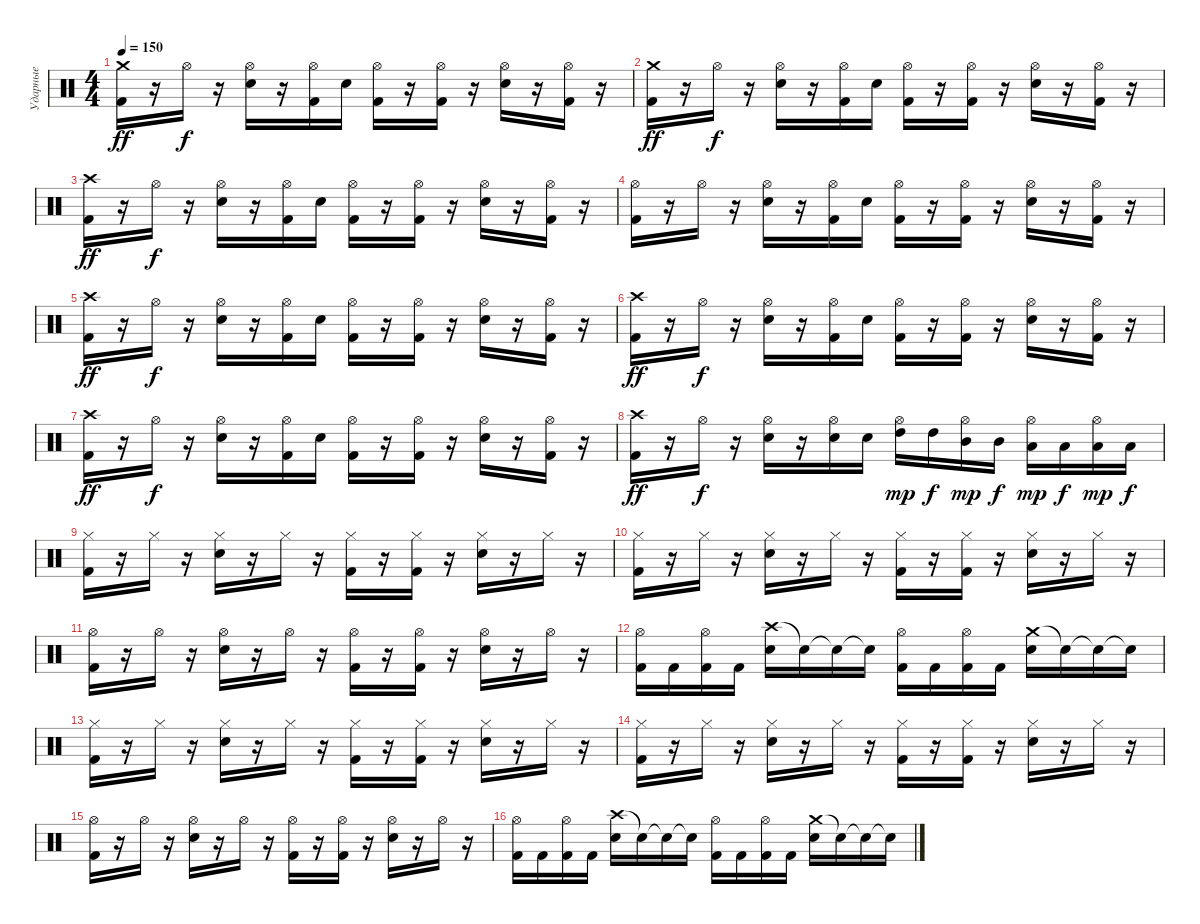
\track ("Ударные" "Ударные") {instrument percussion}
\staff {score}
\articulation defaults
\ts (4 4)
\tempo 150
\clef neutral
\ks c
("Crash medium (hit)" "Kick (hit) 2").16{dy ff} r.16 "Hi-Hat (open)".16{dy f} r.16 ("Hi-Hat (open)" "Snare (hit) 2").16 r.16 ("Hi-Hat (open)" "Kick (hit) 2").16 "Snare (hit) 2".16 ("Hi-Hat (open)" "Kick (hit) 2").16 r.16 ("Hi-Hat (open)" "Kick (hit) 2").16 r.16 ("Hi-Hat (open)" "Snare (hit) 2").16 r.16 ("Hi-Hat (open)" "Kick (hit) 2").16 r.16 |
("Crash medium (hit)" "Kick (hit) 2").16{dy ff} r.16 "Hi-Hat (open)".16{dy f} r.16 ("Hi-Hat (open)" "Snare (hit) 2").16 r.16 ("Hi-Hat (open)" "Kick (hit) 2").16 "Snare (hit) 2".16 ("Hi-Hat (open)" "Kick (hit) 2").16 r.16 ("Hi-Hat (open)" "Kick (hit) 2").16 r.16 ("Hi-Hat (open)" "Snare (hit) 2").16 r.16 ("Hi-Hat (open)" "Kick (hit) 2").16 r.16 |
("Crash high (hit)" "Kick (hit) 2").16{dy ff} r.16 "Hi-Hat (open)".16{dy f} r.16 ("Hi-Hat (open)" "Snare (hit) 2").16 r.16 ("Hi-Hat (open)" "Kick (hit) 2").16 "Snare (hit) 2".16 ("Hi-Hat (open)" "Kick (hit) 2").16 r.16 ("Hi-Hat (open)" "Kick (hit) 2").16 r.16 ("Hi-Hat (open)" "Snare (hit) 2").16 r.16 ("Hi-Hat (open)" "Kick (hit) 2").16 r.16 |
("Hi-Hat (open)" "Kick (hit) 2").16 r.16 "Hi-Hat (open)".16 r.16 ("Hi-Hat (open)" "Snare (hit) 2").16 r.16 ("Hi-Hat (open)" "Kick (hit) 2").16 "Snare (hit) 2".16 ("Hi-Hat (open)" "Kick (hit) 2").16 r.16 ("Hi-Hat (open)" "Kick (hit) 2").16 r.16 ("Hi-Hat (open)" "Snare (hit) 2").16 r.16 ("Hi-Hat (open)" "Kick (hit) 2").16 r.16 |
("Crash high (hit)" "Kick (hit) 2").16{dy ff} r.16 "Hi-Hat (open)".16{dy f} r.16 ("Hi-Hat (open)" "Snare (hit) 2").16 r.16 ("Hi-Hat (open)" "Kick (hit) 2").16 "Snare (hit) 2".16 ("Hi-Hat (open)" "Kick (hit) 2").16 r.16 ("Hi-Hat (open)" "Kick (hit) 2").16 r.16 ("Hi-Hat (open)" "Snare (hit) 2").16 r.16 ("Hi-Hat (open)" "Kick (hit) 2").16 r.16 |
("Crash high (hit)" "Kick (hit) 2").16{dy ff} r.16 "Hi-Hat (open)".16{dy f} r.16 ("Hi-Hat (open)" "Snare (hit) 2").16 r.16 ("Hi-Hat (open)" "Kick (hit) 2").16 "Snare (hit) 2".16 ("Hi-Hat (open)" "Kick (hit) 2").16 r.16 ("Hi-Hat (open)" "Kick (hit) 2").16 r.16 ("Hi-Hat (open)" "Snare (hit) 2").16 r.16 ("Hi-Hat (open)" "Kick (hit) 2").16 r.16 |
("Crash high (hit)" "Kick (hit) 2").16{dy ff} r.16 "Hi-Hat (open)".16{dy f} r.16 ("Hi-Hat (open)" "Snare (hit) 2").16 r.16 ("Hi-Hat (open)" "Kick (hit) 2").16 "Snare (hit) 2".16 ("Hi-Hat (open)" "Kick (hit) 2").16 r.16 ("Hi-Hat (open)" "Kick (hit) 2").16 r.16 ("Hi-Hat (open)" "Snare (hit) 2").16 r.16 ("Hi-Hat (open)" "Kick (hit) 2").16 r.16 |
("Crash high (hit)" "Kick (hit) 2").16{dy ff} r.16 "Hi-Hat (open)".16{dy f} r.16 ("Hi-Hat (open)" "Snare (hit) 2").16 r.16 ("Hi-Hat (open)" "Snare (hit) 2").16 "Snare (hit) 2".16 ("Hi-Hat (open)" "High Tom (hit)").16{dy mp} "High Tom (hit)".16{dy f} ("Hi-Hat (open)" "Mid Tom (hit)").16{dy mp} "Mid Tom (hit)".16{dy f} ("Hi-Hat (open)" "Low Tom (hit)").16{dy mp} "Low Tom (hit)".16{dy f} ("Hi-Hat (open)" "Low Floor Tom (hit)").16{dy mp} "Low Floor Tom (hit)".16{dy f} |
("Hi-Hat (closed)" "Kick (hit) 2").16 r.16 "Hi-Hat (closed)".16 r.16 ("Hi-Hat (closed)" "Snare (hit) 2").16 r.16 "Hi-Hat (closed)".16 r.16 ("Hi-Hat (closed)" "Kick (hit) 2").16 r.16 ("Hi-Hat (closed)" "Kick (hit) 2").16 r.16 ("Hi-Hat (closed)" "Snare (hit) 2").16 r.16 "Hi-Hat (closed)".16 r.16 |
("Hi-Hat (closed)" "Kick (hit) 2").16 r.16 "Hi-Hat (closed)".16 r.16 ("Hi-Hat (closed)" "Snare (hit) 2").16 r.16 "Hi-Hat (closed)".16 r.16 ("Hi-Hat (closed)" "Kick (hit) 2").16 r.16 ("Hi-Hat (closed)" "Kick (hit) 2").16 r.16 ("Hi-Hat (closed)" "Snare (hit) 2").16 r.16 "Hi-Hat (closed)".16 r.16 |
("Hi-Hat (open)" "Kick (hit) 2").16 r.16 "Hi-Hat (open)".16 r.16 ("Hi-Hat (open)" "Snare (hit) 2").16 r.16 "Hi-Hat (open)".16 r.16 ("Hi-Hat (open)" "Kick (hit) 2").16 r.16 ("Hi-Hat (open)" "Kick (hit) 2").16 r.16 ("Hi-Hat (open)" "Snare (hit) 2").16 r.16 "Hi-Hat (open)".16 r.16 |
("Hi-Hat (open)" "Kick (hit) 2").16 "Kick (hit) 2".16 ("Hi-Hat (open)" "Kick (hit) 2").16 "Kick (hit) 2".16 ("Crash high (hit)" "Snare (hit) 2").16 "Snare (hit)"{t}.16 "Snare (hit)"{t}.16 "Snare (hit)"{t}.16 ("Hi-Hat (open)" "Kick (hit) 2").16 "Kick (hit) 2".16 ("Hi-Hat (open)" "Kick (hit) 2").16 "Kick (hit) 2".16 ("Crash medium (hit)" "Snare (hit) 2").16 "Snare (hit)"{t}.16 "Snare (hit)"{t}.16 "Snare (hit)"{t}.16 |
("Hi-Hat (closed)" "Kick (hit) 2").16 r.16 "Hi-Hat (closed)".16 r.16 ("Hi-Hat (closed)" "Snare (hit) 2").16 r.16 "Hi-Hat (closed)".16 r.16 ("Hi-Hat (closed)" "Kick (hit) 2").16 r.16 ("Hi-Hat (closed)" "Kick (hit) 2").16 r.16 ("Hi-Hat (closed)" "Snare (hit) 2").16 r.16 "Hi-Hat (closed)".16 r.16 |
("Hi-Hat (closed)" "Kick (hit) 2").16 r.16 "Hi-Hat (closed)".16 r.16 ("Hi-Hat (closed)" "Snare (hit) 2").16 r.16 "Hi-Hat (closed)".16 r.16 ("Hi-Hat (closed)" "Kick (hit) 2").16 r.16 ("Hi-Hat (closed)" "Kick (hit) 2").16 r.16 ("Hi-Hat (closed)" "Snare (hit) 2").16 r.16 "Hi-Hat (closed)".16 r.16 |
("Hi-Hat (open)" "Kick (hit) 2").16 r.16 "Hi-Hat (open)".16 r.16 ("Hi-Hat (open)" "Snare (hit) 2").16 r.16 "Hi-Hat (open)".16 r.16 ("Hi-Hat (open)" "Kick (hit) 2").16 r.16 ("Hi-Hat (open)" "Kick (hit) 2").16 r.16 ("Hi-Hat (open)" "Snare (hit) 2").16 r.16 "Hi-Hat (open)".16 r.16 |
("Hi-Hat (open)" "Kick (hit) 2").16 "Kick (hit) 2".16 ("Hi-Hat (open)" "Kick (hit) 2").16 "Kick (hit) 2".16 ("Crash high (hit)" "Snare (hit) 2").16 "Snare (hit)"{t}.16 "Snare (hit)"{t}.16 "Snare (hit)"{t}.16 ("Hi-Hat (open)" "Kick (hit) 2").16 "Kick (hit) 2".16 ("Hi-Hat (open)" "Kick (hit) 2").16 "Kick (hit) 2".16 ("Crash medium (hit)" "Snare (hit) 2").16 "Snare (hit)"{t}.16 "Snare (hit)"{t}.16 "Snare (hit)"{t}.16
